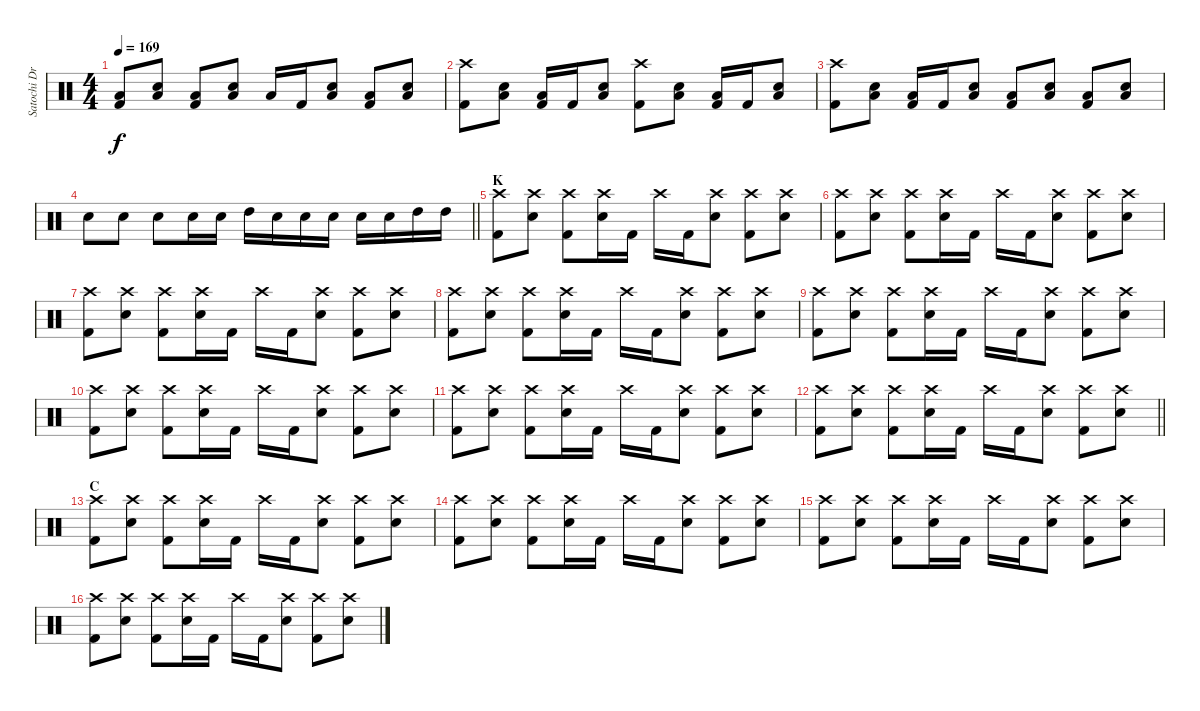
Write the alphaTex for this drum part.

\track ("Satochi Drums" "Satochi Dr") {instrument percussion}
\staff {score}
\articulation defaults
\ts (4 4)
\tempo 169
\clef neutral
\ks c
("Low Floor Tom (hit)" "Kick (hit) 2").8{dy f} ("Snare (hit) 2" "Low Floor Tom (hit)").8 ("Low Floor Tom (hit)" "Kick (hit) 2").8 ("Snare (hit) 2" "Low Floor Tom (hit)").8 "Low Floor Tom (hit)".16 "Kick (hit) 2".16 ("Snare (hit) 2" "Low Floor Tom (hit)").8 ("Low Floor Tom (hit)" "Kick (hit) 2").8 ("Snare (hit) 2" "Low Floor Tom (hit)").8 |
("Crash high (hit)" "Kick (hit) 2").8 ("Snare (hit) 2" "Low Floor Tom (hit)").8 ("Low Floor Tom (hit)" "Kick (hit) 2").16 "Kick (hit) 2".16 ("Snare (hit) 2" "Low Floor Tom (hit)").8 ("Crash high (hit)" "Kick (hit) 2").8 ("Snare (hit) 2" "Low Floor Tom (hit)").8 ("Low Floor Tom (hit)" "Kick (hit) 2").16 "Kick (hit) 2".16 ("Snare (hit) 2" "Low Floor Tom (hit)").8 |
("Crash high (hit)" "Kick (hit) 2").8 ("Snare (hit) 2" "Low Floor Tom (hit)").8 ("Low Floor Tom (hit)" "Kick (hit) 2").16 "Kick (hit) 2".16 ("Snare (hit) 2" "Low Floor Tom (hit)").8 ("Low Floor Tom (hit)" "Kick (hit) 2").8 ("Snare (hit) 2" "Low Floor Tom (hit)").8 ("Low Floor Tom (hit)" "Kick (hit) 2").8 ("Snare (hit) 2" "Low Floor Tom (hit)").8 |
\barLineRight lightlight "Snare (hit) 2".8 "Snare (hit) 2".8 "Snare (hit) 2".8 "Snare (hit) 2".16 "Snare (hit) 2".16 "High Tom (hit)".16 "Snare (hit) 2".16 "Snare (hit) 2".16 "Snare (hit) 2".16 "Snare (hit) 2".16 "Snare (hit) 2".16 "High Tom (hit)".16 "High Tom (hit)".16
|
\section ("" "K")
("Crash high (hit)" "Kick (hit) 2").8 ("Crash high (hit)" "Snare (hit) 2").8 ("Crash high (hit)" "Kick (hit) 2").8 ("Crash high (hit)" "Snare (hit) 2").16 "Kick (hit) 2".16 "Crash high (hit)".16 "Kick (hit) 2".16 ("Crash high (hit)" "Snare (hit) 2").8 ("Crash high (hit)" "Kick (hit) 2").8 ("Crash high (hit)" "Snare (hit) 2").8 |
("Crash high (hit)" "Kick (hit) 2").8 ("Crash high (hit)" "Snare (hit) 2").8 ("Crash high (hit)" "Kick (hit) 2").8 ("Crash high (hit)" "Snare (hit) 2").16 "Kick (hit) 2".16 "Crash high (hit)".16 "Kick (hit) 2".16 ("Crash high (hit)" "Snare (hit) 2").8 ("Crash high (hit)" "Kick (hit) 2").8 ("Crash high (hit)" "Snare (hit) 2").8 |
("Crash high (hit)" "Kick (hit) 2").8 ("Crash high (hit)" "Snare (hit) 2").8 ("Crash high (hit)" "Kick (hit) 2").8 ("Crash high (hit)" "Snare (hit) 2").16 "Kick (hit) 2".16 "Crash high (hit)".16 "Kick (hit) 2".16 ("Crash high (hit)" "Snare (hit) 2").8 ("Crash high (hit)" "Kick (hit) 2").8 ("Crash high (hit)" "Snare (hit) 2").8 |
("Crash high (hit)" "Kick (hit) 2").8 ("Crash high (hit)" "Snare (hit) 2").8 ("Crash high (hit)" "Kick (hit) 2").8 ("Crash high (hit)" "Snare (hit) 2").16 "Kick (hit) 2".16 "Crash high (hit)".16 "Kick (hit) 2".16 ("Crash high (hit)" "Snare (hit) 2").8 ("Crash high (hit)" "Kick (hit) 2").8 ("Crash high (hit)" "Snare (hit) 2").8 |
("Crash high (hit)" "Kick (hit) 2").8 ("Crash high (hit)" "Snare (hit) 2").8 ("Crash high (hit)" "Kick (hit) 2").8 ("Crash high (hit)" "Snare (hit) 2").16 "Kick (hit) 2".16 "Crash high (hit)".16 "Kick (hit) 2".16 ("Crash high (hit)" "Snare (hit) 2").8 ("Crash high (hit)" "Kick (hit) 2").8 ("Crash high (hit)" "Snare (hit) 2").8 |
("Crash high (hit)" "Kick (hit) 2").8 ("Crash high (hit)" "Snare (hit) 2").8 ("Crash high (hit)" "Kick (hit) 2").8 ("Crash high (hit)" "Snare (hit) 2").16 "Kick (hit) 2".16 "Crash high (hit)".16 "Kick (hit) 2".16 ("Crash high (hit)" "Snare (hit) 2").8 ("Crash high (hit)" "Kick (hit) 2").8 ("Crash high (hit)" "Snare (hit) 2").8 |
("Crash high (hit)" "Kick (hit) 2").8 ("Crash high (hit)" "Snare (hit) 2").8 ("Crash high (hit)" "Kick (hit) 2").8 ("Crash high (hit)" "Snare (hit) 2").16 "Kick (hit) 2".16 "Crash high (hit)".16 "Kick (hit) 2".16 ("Crash high (hit)" "Snare (hit) 2").8 ("Crash high (hit)" "Kick (hit) 2").8 ("Crash high (hit)" "Snare (hit) 2").8 |
\barLineRight lightlight
("Crash high (hit)" "Kick (hit) 2").8 ("Crash high (hit)" "Snare (hit) 2").8 ("Crash high (hit)" "Kick (hit) 2").8 ("Crash high (hit)" "Snare (hit) 2").16 "Kick (hit) 2".16 "Crash high (hit)".16 "Kick (hit) 2".16 ("Crash high (hit)" "Snare (hit) 2").8 ("Crash high (hit)" "Kick (hit) 2").8 ("Crash high (hit)" "Snare (hit) 2").8 |
\section ("" "C")
("Crash high (hit)" "Kick (hit) 2").8 ("Crash high (hit)" "Snare (hit) 2").8 ("Crash high (hit)" "Kick (hit) 2").8 ("Crash high (hit)" "Snare (hit) 2").16 "Kick (hit) 2".16 "Crash high (hit)".16 "Kick (hit) 2".16 ("Crash high (hit)" "Snare (hit) 2").8 ("Crash high (hit)" "Kick (hit) 2").8 ("Crash high (hit)" "Snare (hit) 2").8 |
("Crash high (hit)" "Kick (hit) 2").8 ("Crash high (hit)" "Snare (hit) 2").8 ("Crash high (hit)" "Kick (hit) 2").8 ("Crash high (hit)" "Snare (hit) 2").16 "Kick (hit) 2".16 "Crash high (hit)".16 "Kick (hit) 2".16 ("Crash high (hit)" "Snare (hit) 2").8 ("Crash high (hit)" "Kick (hit) 2").8 ("Crash high (hit)" "Snare (hit) 2").8 |
("Crash high (hit)" "Kick (hit) 2").8 ("Crash high (hit)" "Snare (hit) 2").8 ("Crash high (hit)" "Kick (hit) 2").8 ("Crash high (hit)" "Snare (hit) 2").16 "Kick (hit) 2".16 "Crash high (hit)".16 "Kick (hit) 2".16 ("Crash high (hit)" "Snare (hit) 2").8 ("Crash high (hit)" "Kick (hit) 2").8 ("Crash high (hit)" "Snare (hit) 2").8 |
("Crash high (hit)" "Kick (hit) 2").8 ("Crash high (hit)" "Snare (hit) 2").8 ("Crash high (hit)" "Kick (hit) 2").8 ("Crash high (hit)" "Snare (hit) 2").16 "Kick (hit) 2".16 "Crash high (hit)".16 "Kick (hit) 2".16 ("Crash high (hit)" "Snare (hit) 2").8 ("Crash high (hit)" "Kick (hit) 2").8 ("Crash high (hit)" "Snare (hit) 2").8
